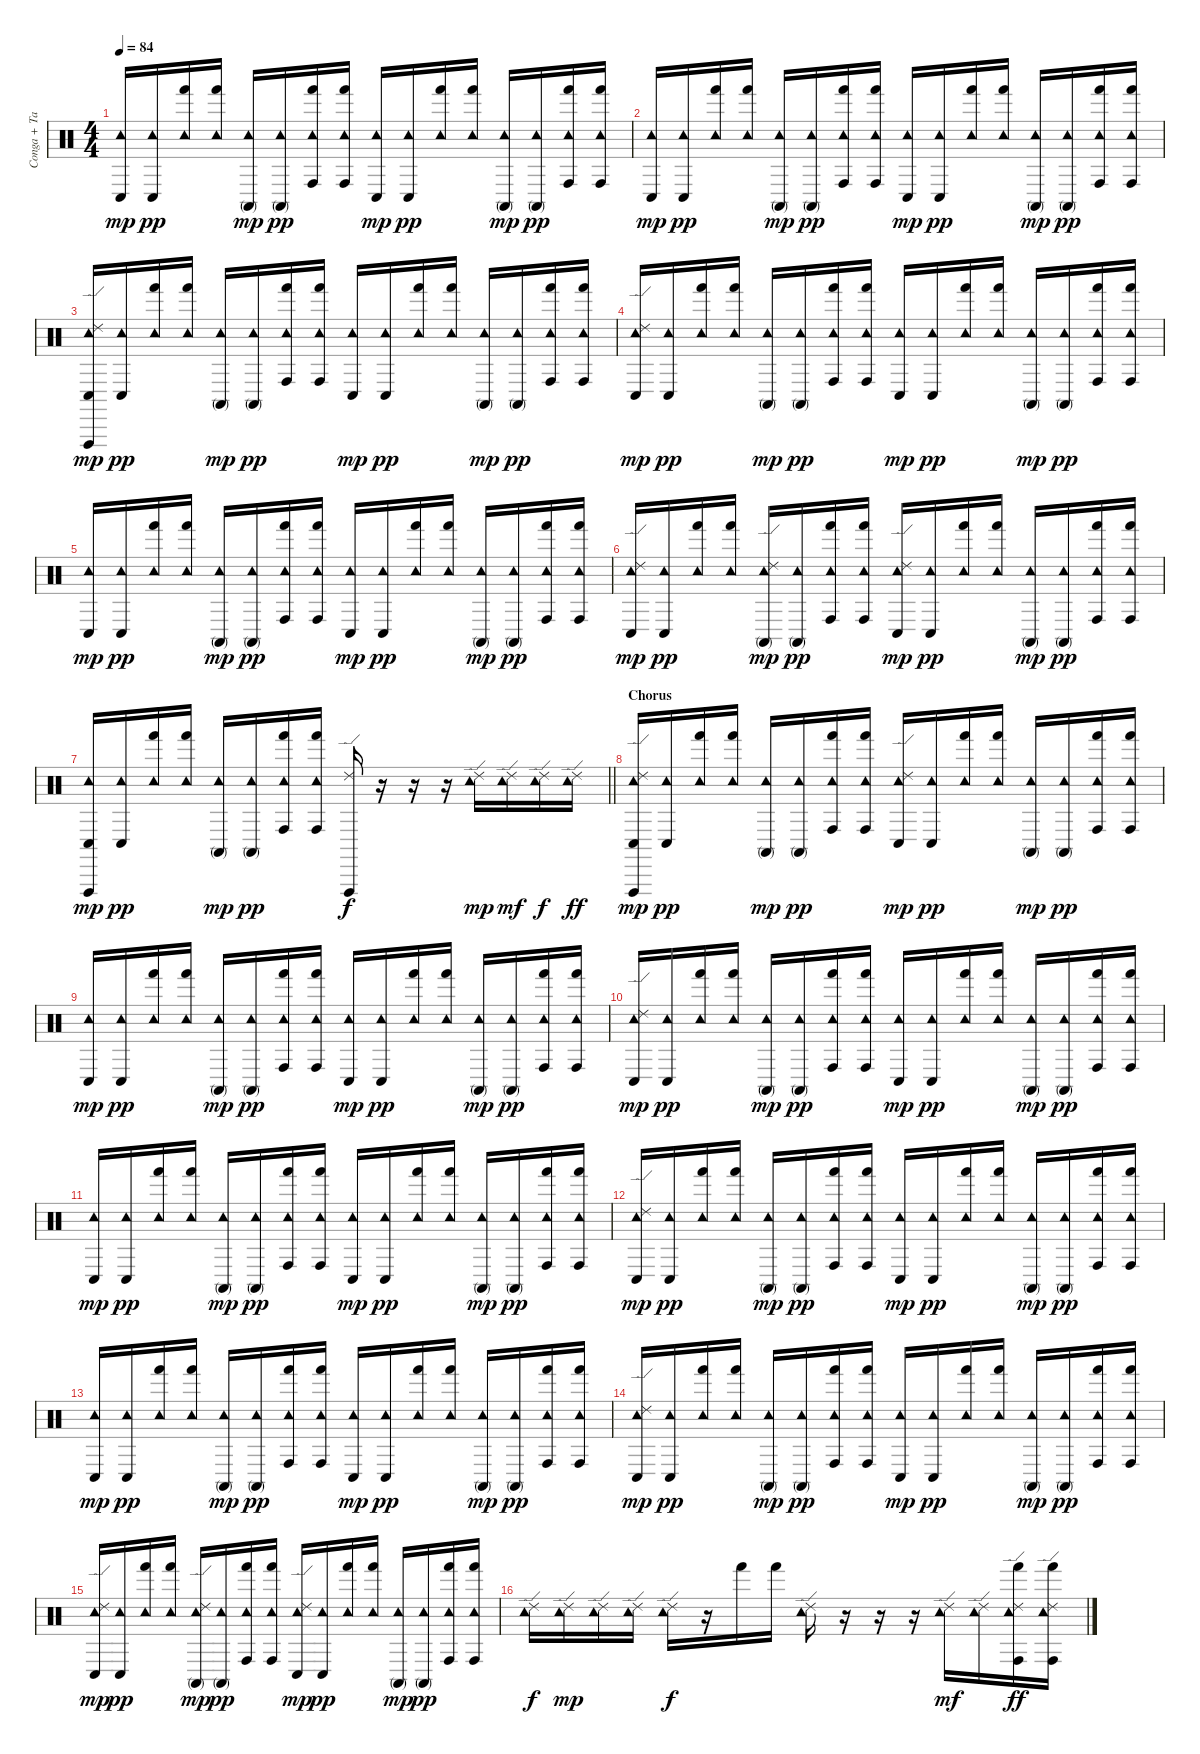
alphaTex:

\track ("Conga + Tambourine" "Conga + Ta") {instrument percussion}
\staff {score}
\articulation defaults
\ts (4 4)
\tempo 84
\clef neutral
\ks c
("Conga low (hit)" "Tambourine (hit)").16{dy mp} ("Conga low (hit)" "Tambourine (hit)").16{dy pp} ("Hand (hit)" "Tambourine (hit)").16 ("Hand (hit)" "Tambourine (hit)").16 ("Conga high (mute)" "Tambourine (hit)").16{dy mp} ("Conga high (mute)" "Tambourine (hit)").16{dy pp} ("Conga high (hit)" "Hand (hit)" "Tambourine (hit)").16 ("Conga high (hit)" "Hand (hit)" "Tambourine (hit)").16 ("Conga low (hit)" "Tambourine (hit)").16{dy mp} ("Conga low (hit)" "Tambourine (hit)").16{dy pp} ("Hand (hit)" "Tambourine (hit)").16 ("Hand (hit)" "Tambourine (hit)").16 ("Conga high (mute)" "Tambourine (hit)").16{dy mp} ("Conga high (mute)" "Tambourine (hit)").16{dy pp} ("Conga high (hit)" "Hand (hit)" "Tambourine (hit)").16 ("Conga high (hit)" "Hand (hit)" "Tambourine (hit)").16 |
("Conga low (hit)" "Tambourine (hit)").16{dy mp} ("Conga low (hit)" "Tambourine (hit)").16{dy pp} ("Hand (hit)" "Tambourine (hit)").16 ("Hand (hit)" "Tambourine (hit)").16 ("Conga high (mute)" "Tambourine (hit)").16{dy mp} ("Conga high (mute)" "Tambourine (hit)").16{dy pp} ("Conga high (hit)" "Hand (hit)" "Tambourine (hit)").16 ("Conga high (hit)" "Hand (hit)" "Tambourine (hit)").16 ("Conga low (hit)" "Tambourine (hit)").16{dy mp} ("Conga low (hit)" "Tambourine (hit)").16{dy pp} ("Hand (hit)" "Tambourine (hit)").16 ("Hand (hit)" "Tambourine (hit)").16 ("Conga high (mute)" "Tambourine (hit)").16{dy mp} ("Conga high (mute)" "Tambourine (hit)").16{dy pp} ("Conga high (hit)" "Hand (hit)" "Tambourine (hit)").16 ("Conga high (hit)" "Hand (hit)" "Tambourine (hit)").16 |
("Conga low (hit)" "Vibraslap (hit)" "Tambourine (hit)" "Ride (edge) 2").16{dy mp} ("Conga low (hit)" "Tambourine (hit)").16{dy pp} ("Hand (hit)" "Tambourine (hit)").16 ("Hand (hit)" "Tambourine (hit)").16 ("Conga high (mute)" "Tambourine (hit)").16{dy mp} ("Conga high (mute)" "Tambourine (hit)").16{dy pp} ("Conga high (hit)" "Hand (hit)" "Tambourine (hit)").16 ("Conga high (hit)" "Hand (hit)" "Tambourine (hit)").16 ("Conga low (hit)" "Tambourine (hit)").16{dy mp} ("Conga low (hit)" "Tambourine (hit)").16{dy pp} ("Hand (hit)" "Tambourine (hit)").16 ("Hand (hit)" "Tambourine (hit)").16 ("Conga high (mute)" "Tambourine (hit)").16{dy mp} ("Conga high (mute)" "Tambourine (hit)").16{dy pp} ("Conga high (hit)" "Hand (hit)" "Tambourine (hit)").16 ("Conga high (hit)" "Hand (hit)" "Tambourine (hit)").16 |
("Conga low (hit)" "Tambourine (hit)" "Ride (edge) 2").16{dy mp} ("Conga low (hit)" "Tambourine (hit)").16{dy pp} ("Hand (hit)" "Tambourine (hit)").16 ("Hand (hit)" "Tambourine (hit)").16 ("Conga high (mute)" "Tambourine (hit)").16{dy mp} ("Conga high (mute)" "Tambourine (hit)").16{dy pp} ("Conga high (hit)" "Hand (hit)" "Tambourine (hit)").16 ("Conga high (hit)" "Hand (hit)" "Tambourine (hit)").16 ("Conga low (hit)" "Tambourine (hit)").16{dy mp} ("Conga low (hit)" "Tambourine (hit)").16{dy pp} ("Hand (hit)" "Tambourine (hit)").16 ("Hand (hit)" "Tambourine (hit)").16 ("Conga high (mute)" "Tambourine (hit)").16{dy mp} ("Conga high (mute)" "Tambourine (hit)").16{dy pp} ("Conga high (hit)" "Hand (hit)" "Tambourine (hit)").16 ("Conga high (hit)" "Hand (hit)" "Tambourine (hit)").16 |
("Conga low (hit)" "Tambourine (hit)").16{dy mp} ("Conga low (hit)" "Tambourine (hit)").16{dy pp} ("Hand (hit)" "Tambourine (hit)").16 ("Hand (hit)" "Tambourine (hit)").16 ("Conga high (mute)" "Tambourine (hit)").16{dy mp} ("Conga high (mute)" "Tambourine (hit)").16{dy pp} ("Conga high (hit)" "Hand (hit)" "Tambourine (hit)").16 ("Conga high (hit)" "Hand (hit)" "Tambourine (hit)").16 ("Conga low (hit)" "Tambourine (hit)").16{dy mp} ("Conga low (hit)" "Tambourine (hit)").16{dy pp} ("Hand (hit)" "Tambourine (hit)").16 ("Hand (hit)" "Tambourine (hit)").16 ("Conga high (mute)" "Tambourine (hit)").16{dy mp} ("Conga high (mute)" "Tambourine (hit)").16{dy pp} ("Conga high (hit)" "Hand (hit)" "Tambourine (hit)").16 ("Conga high (hit)" "Hand (hit)" "Tambourine (hit)").16 |
("Conga low (hit)" "Tambourine (hit)" "Ride (edge) 2").16{dy mp} ("Conga low (hit)" "Tambourine (hit)").16{dy pp} ("Hand (hit)" "Tambourine (hit)").16 ("Hand (hit)" "Tambourine (hit)").16 ("Conga high (mute)" "Tambourine (hit)" "Ride (edge) 2").16{dy mp} ("Conga high (mute)" "Tambourine (hit)").16{dy pp} ("Conga high (hit)" "Hand (hit)" "Tambourine (hit)").16 ("Conga high (hit)" "Hand (hit)" "Tambourine (hit)").16 ("Conga low (hit)" "Tambourine (hit)" "Ride (edge) 2").16{dy mp} ("Conga low (hit)" "Tambourine (hit)").16{dy pp} ("Hand (hit)" "Tambourine (hit)").16 ("Hand (hit)" "Tambourine (hit)").16 ("Conga high (mute)" "Tambourine (hit)").16{dy mp} ("Conga high (mute)" "Tambourine (hit)").16{dy pp} ("Conga high (hit)" "Hand (hit)" "Tambourine (hit)").16 ("Conga high (hit)" "Hand (hit)" "Tambourine (hit)").16 |
\barLineRight lightlight
("Conga low (hit)" "Vibraslap (hit)" "Tambourine (hit)").16{dy mp} ("Conga low (hit)" "Tambourine (hit)").16{dy pp} ("Hand (hit)" "Tambourine (hit)").16 ("Hand (hit)" "Tambourine (hit)").16 ("Conga high (mute)" "Tambourine (hit)").16{dy mp} ("Conga high (mute)" "Tambourine (hit)").16{dy pp} ("Conga high (hit)" "Hand (hit)" "Tambourine (hit)").16 ("Conga high (hit)" "Hand (hit)" "Tambourine (hit)").16 ("Vibraslap (hit)" "Ride (edge) 2").16{dy f} r.16 r.16 r.16 ("Tambourine (hit)" "Ride (edge) 2").16{dy mp} ("Tambourine (hit)" "Ride (edge) 2").16{dy mf} ("Tambourine (hit)" "Ride (edge) 2").16{dy f} ("Tambourine (hit)" "Ride (edge) 2").16{dy ff} |
\section ("" "Chorus")
("Conga low (hit)" "Vibraslap (hit)" "Tambourine (hit)" "Ride (edge) 2").16{dy mp} ("Conga low (hit)" "Tambourine (hit)").16{dy pp} ("Hand (hit)" "Tambourine (hit)").16 ("Hand (hit)" "Tambourine (hit)").16 ("Conga high (mute)" "Tambourine (hit)").16{dy mp} ("Conga high (mute)" "Tambourine (hit)").16{dy pp} ("Conga high (hit)" "Hand (hit)" "Tambourine (hit)").16 ("Conga high (hit)" "Hand (hit)" "Tambourine (hit)").16 ("Conga low (hit)" "Tambourine (hit)" "Ride (edge) 2").16{dy mp} ("Conga low (hit)" "Tambourine (hit)").16{dy pp} ("Hand (hit)" "Tambourine (hit)").16 ("Hand (hit)" "Tambourine (hit)").16 ("Conga high (mute)" "Tambourine (hit)").16{dy mp} ("Conga high (mute)" "Tambourine (hit)").16{dy pp} ("Conga high (hit)" "Hand (hit)" "Tambourine (hit)").16 ("Conga high (hit)" "Hand (hit)" "Tambourine (hit)").16 |
("Conga low (hit)" "Tambourine (hit)").16{dy mp} ("Conga low (hit)" "Tambourine (hit)").16{dy pp} ("Hand (hit)" "Tambourine (hit)").16 ("Hand (hit)" "Tambourine (hit)").16 ("Conga high (mute)" "Tambourine (hit)").16{dy mp} ("Conga high (mute)" "Tambourine (hit)").16{dy pp} ("Conga high (hit)" "Hand (hit)" "Tambourine (hit)").16 ("Conga high (hit)" "Hand (hit)" "Tambourine (hit)").16 ("Conga low (hit)" "Tambourine (hit)").16{dy mp} ("Conga low (hit)" "Tambourine (hit)").16{dy pp} ("Hand (hit)" "Tambourine (hit)").16 ("Hand (hit)" "Tambourine (hit)").16 ("Conga high (mute)" "Tambourine (hit)").16{dy mp} ("Conga high (mute)" "Tambourine (hit)").16{dy pp} ("Conga high (hit)" "Hand (hit)" "Tambourine (hit)").16 ("Conga high (hit)" "Hand (hit)" "Tambourine (hit)").16 |
("Conga low (hit)" "Tambourine (hit)" "Ride (edge) 2").16{dy mp} ("Conga low (hit)" "Tambourine (hit)").16{dy pp} ("Hand (hit)" "Tambourine (hit)").16 ("Hand (hit)" "Tambourine (hit)").16 ("Conga high (mute)" "Tambourine (hit)").16{dy mp} ("Conga high (mute)" "Tambourine (hit)").16{dy pp} ("Conga high (hit)" "Hand (hit)" "Tambourine (hit)").16 ("Conga high (hit)" "Hand (hit)" "Tambourine (hit)").16 ("Conga low (hit)" "Tambourine (hit)").16{dy mp} ("Conga low (hit)" "Tambourine (hit)").16{dy pp} ("Hand (hit)" "Tambourine (hit)").16 ("Hand (hit)" "Tambourine (hit)").16 ("Conga high (mute)" "Tambourine (hit)").16{dy mp} ("Conga high (mute)" "Tambourine (hit)").16{dy pp} ("Conga high (hit)" "Hand (hit)" "Tambourine (hit)").16 ("Conga high (hit)" "Hand (hit)" "Tambourine (hit)").16 |
("Conga low (hit)" "Tambourine (hit)").16{dy mp} ("Conga low (hit)" "Tambourine (hit)").16{dy pp} ("Hand (hit)" "Tambourine (hit)").16 ("Hand (hit)" "Tambourine (hit)").16 ("Conga high (mute)" "Tambourine (hit)").16{dy mp} ("Conga high (mute)" "Tambourine (hit)").16{dy pp} ("Conga high (hit)" "Hand (hit)" "Tambourine (hit)").16 ("Conga high (hit)" "Hand (hit)" "Tambourine (hit)").16 ("Conga low (hit)" "Tambourine (hit)").16{dy mp} ("Conga low (hit)" "Tambourine (hit)").16{dy pp} ("Hand (hit)" "Tambourine (hit)").16 ("Hand (hit)" "Tambourine (hit)").16 ("Conga high (mute)" "Tambourine (hit)").16{dy mp} ("Conga high (mute)" "Tambourine (hit)").16{dy pp} ("Conga high (hit)" "Hand (hit)" "Tambourine (hit)").16 ("Conga high (hit)" "Hand (hit)" "Tambourine (hit)").16 |
("Conga low (hit)" "Tambourine (hit)" "Ride (edge) 2").16{dy mp} ("Conga low (hit)" "Tambourine (hit)").16{dy pp} ("Hand (hit)" "Tambourine (hit)").16 ("Hand (hit)" "Tambourine (hit)").16 ("Conga high (mute)" "Tambourine (hit)").16{dy mp} ("Conga high (mute)" "Tambourine (hit)").16{dy pp} ("Conga high (hit)" "Hand (hit)" "Tambourine (hit)").16 ("Conga high (hit)" "Hand (hit)" "Tambourine (hit)").16 ("Conga low (hit)" "Tambourine (hit)").16{dy mp} ("Conga low (hit)" "Tambourine (hit)").16{dy pp} ("Hand (hit)" "Tambourine (hit)").16 ("Hand (hit)" "Tambourine (hit)").16 ("Conga high (mute)" "Tambourine (hit)").16{dy mp} ("Conga high (mute)" "Tambourine (hit)").16{dy pp} ("Conga high (hit)" "Hand (hit)" "Tambourine (hit)").16 ("Conga high (hit)" "Hand (hit)" "Tambourine (hit)").16 |
("Conga low (hit)" "Tambourine (hit)").16{dy mp} ("Conga low (hit)" "Tambourine (hit)").16{dy pp} ("Hand (hit)" "Tambourine (hit)").16 ("Hand (hit)" "Tambourine (hit)").16 ("Conga high (mute)" "Tambourine (hit)").16{dy mp} ("Conga high (mute)" "Tambourine (hit)").16{dy pp} ("Conga high (hit)" "Hand (hit)" "Tambourine (hit)").16 ("Conga high (hit)" "Hand (hit)" "Tambourine (hit)").16 ("Conga low (hit)" "Tambourine (hit)").16{dy mp} ("Conga low (hit)" "Tambourine (hit)").16{dy pp} ("Hand (hit)" "Tambourine (hit)").16 ("Hand (hit)" "Tambourine (hit)").16 ("Conga high (mute)" "Tambourine (hit)").16{dy mp} ("Conga high (mute)" "Tambourine (hit)").16{dy pp} ("Conga high (hit)" "Hand (hit)" "Tambourine (hit)").16 ("Conga high (hit)" "Hand (hit)" "Tambourine (hit)").16 |
("Conga low (hit)" "Tambourine (hit)" "Ride (edge) 2").16{dy mp} ("Conga low (hit)" "Tambourine (hit)").16{dy pp} ("Hand (hit)" "Tambourine (hit)").16 ("Hand (hit)" "Tambourine (hit)").16 ("Conga high (mute)" "Tambourine (hit)").16{dy mp} ("Conga high (mute)" "Tambourine (hit)").16{dy pp} ("Conga high (hit)" "Hand (hit)" "Tambourine (hit)").16 ("Conga high (hit)" "Hand (hit)" "Tambourine (hit)").16 ("Conga low (hit)" "Tambourine (hit)").16{dy mp} ("Conga low (hit)" "Tambourine (hit)").16{dy pp} ("Hand (hit)" "Tambourine (hit)").16 ("Hand (hit)" "Tambourine (hit)").16 ("Conga high (mute)" "Tambourine (hit)").16{dy mp} ("Conga high (mute)" "Tambourine (hit)").16{dy pp} ("Conga high (hit)" "Hand (hit)" "Tambourine (hit)").16 ("Conga high (hit)" "Hand (hit)" "Tambourine (hit)").16 |
("Conga low (hit)" "Tambourine (hit)" "Ride (edge) 2").16{dy mp} ("Conga low (hit)" "Tambourine (hit)").16{dy pp} ("Hand (hit)" "Tambourine (hit)").16 ("Hand (hit)" "Tambourine (hit)").16 ("Conga high (mute)" "Tambourine (hit)" "Ride (edge) 2").16{dy mp} ("Conga high (mute)" "Tambourine (hit)").16{dy pp} ("Conga high (hit)" "Hand (hit)" "Tambourine (hit)").16 ("Conga high (hit)" "Hand (hit)" "Tambourine (hit)").16 ("Conga low (hit)" "Tambourine (hit)" "Ride (edge) 2").16{dy mp} ("Conga low (hit)" "Tambourine (hit)").16{dy pp} ("Hand (hit)" "Tambourine (hit)").16 ("Hand (hit)" "Tambourine (hit)").16 ("Conga high (mute)" "Tambourine (hit)").16{dy mp} ("Conga high (mute)" "Tambourine (hit)").16{dy pp} ("Conga high (hit)" "Hand (hit)" "Tambourine (hit)").16 ("Conga high (hit)" "Hand (hit)" "Tambourine (hit)").16 |
("Tambourine (hit)" "Ride (edge) 2").16{dy f} ("Tambourine (hit)" "Ride (edge) 2").16{dy mp} ("Tambourine (hit)" "Ride (edge) 2").16 ("Tambourine (hit)" "Ride (edge) 2").16 ("Tambourine (hit)" "Ride (edge) 2").16{dy f} r.16 "Hand (hit)".16 "Hand (hit)".16 ("Tambourine (hit)" "Ride (edge) 2").16 r.16 r.16 r.16 ("Tambourine (hit)" "Ride (edge) 2").16{dy mf} ("Tambourine (hit)" "Ride (edge) 2").16 ("Conga high (hit)" "Hand (hit)" "Tambourine (hit)" "Ride (edge) 2").16{dy ff} ("Conga high (hit)" "Hand (hit)" "Tambourine (hit)" "Ride (edge) 2").16
